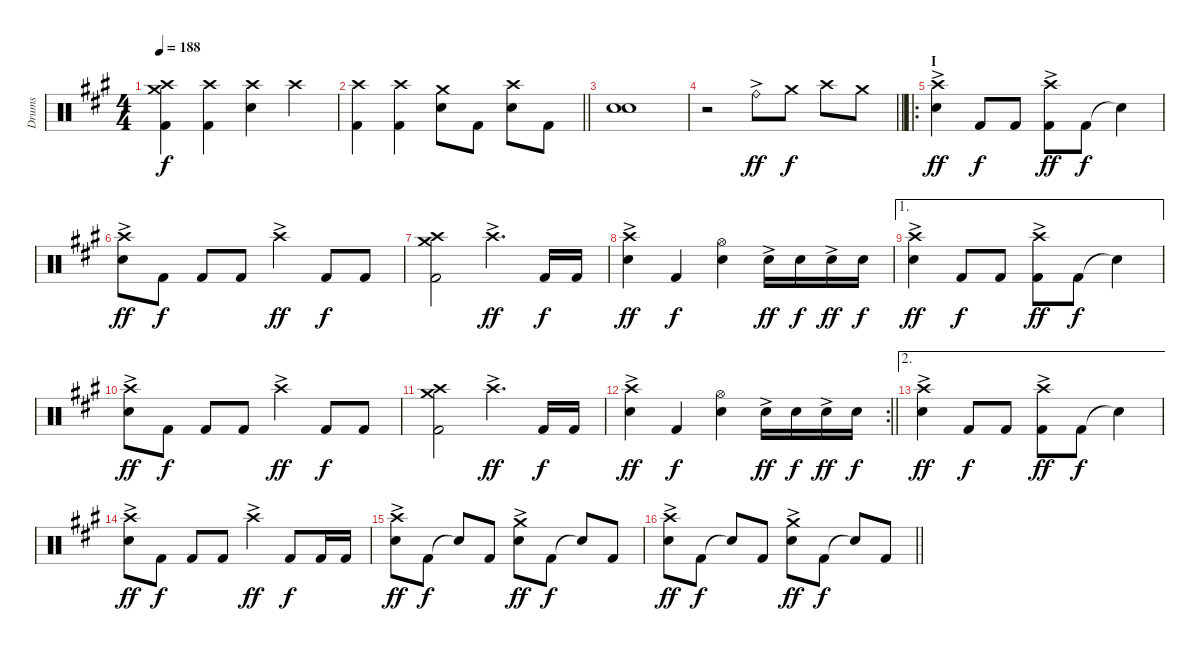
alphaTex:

\track ("Drums" "Drums") {instrument percussion}
\staff {score}
\articulation defaults
\ts (4 4)
\tempo 188
\clef neutral
\ks f#minor
("Crash medium (hit)" "Crash high (hit)" "Kick (hit) 2").4{dy f} ("Crash high (hit)" "Kick (hit) 2").4 ("Crash high (hit)" "Electric Snare (hit)").4 "Crash high (hit)".4 |
\barLineRight lightlight
("Crash high (hit)" "Kick (hit) 2").4 ("Crash high (hit)" "Kick (hit) 2").4 ("Crash medium (hit)" "Electric Snare (hit)").8 "Kick (hit) 2".8 ("Crash high (hit)" "Electric Snare (hit)").8 "Kick (hit) 2".8 |
\section ("" "")
("Electric Snare (hit)" "Electric Snare (hit)").1{bu 240} |
\barLineRight lightlight
r.2 "Ride (bell)"{ac}.8{dy ff} "Crash medium (hit)".8{dy f} "Crash high (hit)".8 "Crash medium (hit)".8 |
\ro
\section ("" "I")
("Crash high (hit)"{ac} "Electric Snare (hit)").4{dy ff} "Kick (hit) 2".8{dy f} "Kick (hit) 2".8 ("Crash high (hit)"{ac} "Kick (hit) 2").8{dy ff} "Kick (hit) 2".8{dy f} "Snare (hit)"{t}.4 |
("Crash high (hit)"{ac} "Electric Snare (hit)").8{dy ff} "Kick (hit) 2".8{dy f} "Kick (hit) 2".8 "Kick (hit) 2".8 "Crash high (hit)"{ac}.4{dy ff} "Kick (hit) 2".8{dy f} "Kick (hit) 2".8 |
("Crash medium (hit)" "Crash high (hit)" "Kick (hit) 2").2 "Crash high (hit)"{ac}.4{d dy ff} "Kick (hit) 2".16{dy f} "Kick (hit) 2".16 |
("Crash high (hit)"{ac} "Electric Snare (hit)").4{dy ff} "Kick (hit) 2".4{dy f} ("Hi-Hat (open)" "Electric Snare (hit)").4 "Electric Snare (hit)"{ac}.16{dy ff} "Electric Snare (hit)".16{dy f} "Electric Snare (hit)"{ac}.16{dy ff} "Electric Snare (hit)".16{dy f} |
\ae 1
("Crash high (hit)"{ac} "Electric Snare (hit)").4{dy ff} "Kick (hit) 2".8{dy f} "Kick (hit) 2".8 ("Crash high (hit)"{ac} "Kick (hit) 2").8{dy ff} "Kick (hit) 2".8{dy f} "Snare (hit)"{t}.4 |
("Crash high (hit)"{ac} "Electric Snare (hit)").8{dy ff} "Kick (hit) 2".8{dy f} "Kick (hit) 2".8 "Kick (hit) 2".8 "Crash high (hit)"{ac}.4{dy ff} "Kick (hit) 2".8{dy f} "Kick (hit) 2".8 |
("Crash medium (hit)" "Crash high (hit)" "Kick (hit) 2").2 "Crash high (hit)"{ac}.4{d dy ff} "Kick (hit) 2".16{dy f} "Kick (hit) 2".16 |
\rc 2
\barLineRight lightlight
("Crash high (hit)"{ac} "Electric Snare (hit)").4{dy ff} "Kick (hit) 2".4{dy f} ("Hi-Hat (open)" "Electric Snare (hit)").4 "Electric Snare (hit)"{ac}.16{dy ff} "Electric Snare (hit)".16{dy f} "Electric Snare (hit)"{ac}.16{dy ff} "Electric Snare (hit)".16{dy f} |
\ae 2
("Crash high (hit)"{ac} "Electric Snare (hit)").4{dy ff} "Kick (hit) 2".8{dy f} "Kick (hit) 2".8 ("Crash high (hit)"{ac} "Kick (hit) 2").8{dy ff} "Kick (hit) 2".8{dy f} "Snare (hit)"{t}.4 |
("Crash high (hit)"{ac} "Electric Snare (hit)").8{dy ff} "Kick (hit) 2".8{dy f} "Kick (hit) 2".8 "Kick (hit) 2".8 "Crash high (hit)"{ac}.4{dy ff} "Kick (hit) 2".8{dy f} "Kick (hit) 2".16 "Kick (hit) 2".16 |
("Crash high (hit)"{ac} "Electric Snare (hit)").8{dy ff} "Kick (hit) 2".8{dy f} "Snare (hit)"{t}.8 "Kick (hit) 2".8 ("Crash medium (hit)"{ac} "Electric Snare (hit)").8{dy ff} "Kick (hit) 2".8{dy f} "Snare (hit)"{t}.8 "Kick (hit) 2".8 |
\barLineRight lightlight
("Crash high (hit)"{ac} "Electric Snare (hit)").8{dy ff} "Kick (hit) 2".8{dy f} "Snare (hit)"{t}.8 "Kick (hit) 2".8 ("Crash medium (hit)"{ac} "Electric Snare (hit)").8{dy ff} "Kick (hit) 2".8{dy f} "Snare (hit)"{t}.8 "Kick (hit) 2".8
